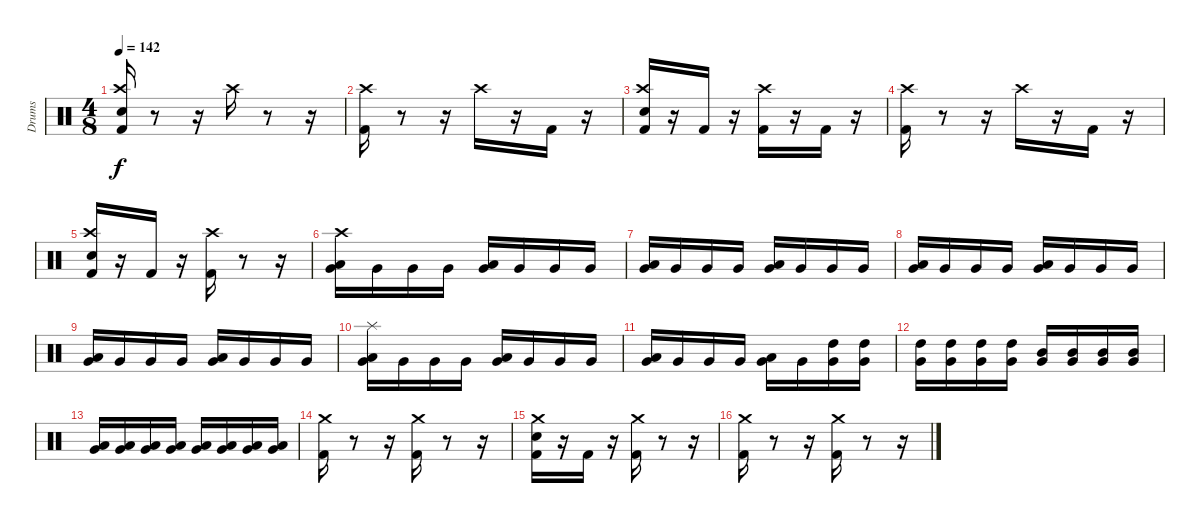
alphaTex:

\track ("Drums" "Drums") {instrument percussion}
\staff {score}
\articulation defaults
\ts (4 8)
\tempo 142
\clef neutral
\ks c
("Kick (hit) 2" "Crash high (hit)" "Electric Snare (hit)").16{dy f} r.8 r.16 "Crash high (hit)".16 r.8 r.16 |
("Kick (hit) 2" "Crash high (hit)").16 r.8 r.16 "Crash high (hit)".16 r.16 "Kick (hit) 2".16 r.16 |
("Electric Snare (hit)" "Kick (hit) 2" "Crash high (hit)").16 r.16 "Kick (hit) 2".16 r.16 ("Crash high (hit)" "Kick (hit) 2").16 r.16 "Kick (hit) 2".16 r.16 |
("Kick (hit) 2" "Crash high (hit)").16 r.8 r.16 "Crash high (hit)".16 r.16 "Kick (hit) 2".16 r.16 |
("Kick (hit) 2" "Crash high (hit)" "Electric Snare (hit)").16 r.16 "Kick (hit) 2".16 r.16 ("Crash high (hit)" "Kick (hit) 2").16 r.8 r.16 |
("Crash high (hit)" "Low Tom (hit)" "Very Low Tom (hit)").16 "Very Low Tom (hit)".16 "Very Low Tom (hit)".16 "Very Low Tom (hit)".16 ("Low Tom (hit)" "Very Low Tom (hit)").16 "Very Low Tom (hit)".16 "Very Low Tom (hit)".16 "Very Low Tom (hit)".16 |
("Low Tom (hit)" "Very Low Tom (hit)").16 "Very Low Tom (hit)".16 "Very Low Tom (hit)".16 "Very Low Tom (hit)".16 ("Low Tom (hit)" "Very Low Tom (hit)").16 "Very Low Tom (hit)".16 "Very Low Tom (hit)".16 "Very Low Tom (hit)".16 |
("Low Tom (hit)" "Very Low Tom (hit)").16 "Very Low Tom (hit)".16 "Very Low Tom (hit)".16 "Very Low Tom (hit)".16 ("Low Tom (hit)" "Very Low Tom (hit)").16 "Very Low Tom (hit)".16 "Very Low Tom (hit)".16 "Very Low Tom (hit)".16 |
("Low Tom (hit)" "Very Low Tom (hit)").16 "Very Low Tom (hit)".16 "Very Low Tom (hit)".16 "Very Low Tom (hit)".16 ("Low Tom (hit)" "Very Low Tom (hit)").16 "Very Low Tom (hit)".16 "Very Low Tom (hit)".16 "Very Low Tom (hit)".16 |
("Low Tom (hit)" "Very Low Tom (hit)" "Splash (hit)").16 "Very Low Tom (hit)".16 "Very Low Tom (hit)".16 "Very Low Tom (hit)".16 ("Low Tom (hit)" "Very Low Tom (hit)").16 "Very Low Tom (hit)".16 "Very Low Tom (hit)".16 "Very Low Tom (hit)".16 |
("Low Tom (hit)" "Very Low Tom (hit)").16 "Very Low Tom (hit)".16 "Very Low Tom (hit)".16 "Very Low Tom (hit)".16 ("Low Tom (hit)" "Very Low Tom (hit)").16 "Very Low Tom (hit)".16 ("Very Low Tom (hit)" "High Tom (hit)").16 ("Very Low Tom (hit)" "High Tom (hit)").16 |
("Very Low Tom (hit)" "High Tom (hit)").16 ("Very Low Tom (hit)" "High Tom (hit)").16 ("Very Low Tom (hit)" "High Tom (hit)").16 ("Very Low Tom (hit)" "High Tom (hit)").16 ("Very Low Tom (hit)" "Mid Tom (hit)").16 ("Very Low Tom (hit)" "Mid Tom (hit)").16 ("Very Low Tom (hit)" "Mid Tom (hit)").16 ("Very Low Tom (hit)" "Mid Tom (hit)").16 |
("Very Low Tom (hit)" "Low Tom (hit)").16 ("Very Low Tom (hit)" "Low Tom (hit)").16 ("Very Low Tom (hit)" "Low Tom (hit)").16 ("Very Low Tom (hit)" "Low Tom (hit)").16 ("Very Low Tom (hit)" "Low Floor Tom (hit)").16 ("Very Low Tom (hit)" "Low Floor Tom (hit)").16 ("Very Low Tom (hit)" "Low Floor Tom (hit)").16 ("Very Low Tom (hit)" "Low Floor Tom (hit)").16 |
("Kick (hit) 2" "Crash medium (hit)").16 r.8 r.16 ("Kick (hit) 2" "Crash medium (hit)").16 r.8 r.16 |
("Electric Snare (hit)" "Crash medium (hit)" "Kick (hit) 2").16 r.16 "Kick (hit) 2".16 r.16 ("Kick (hit) 2" "Crash medium (hit)").16 r.8 r.16 |
("Kick (hit) 2" "Crash medium (hit)").16 r.8 r.16 ("Kick (hit) 2" "Crash medium (hit)").16 r.8 r.16
